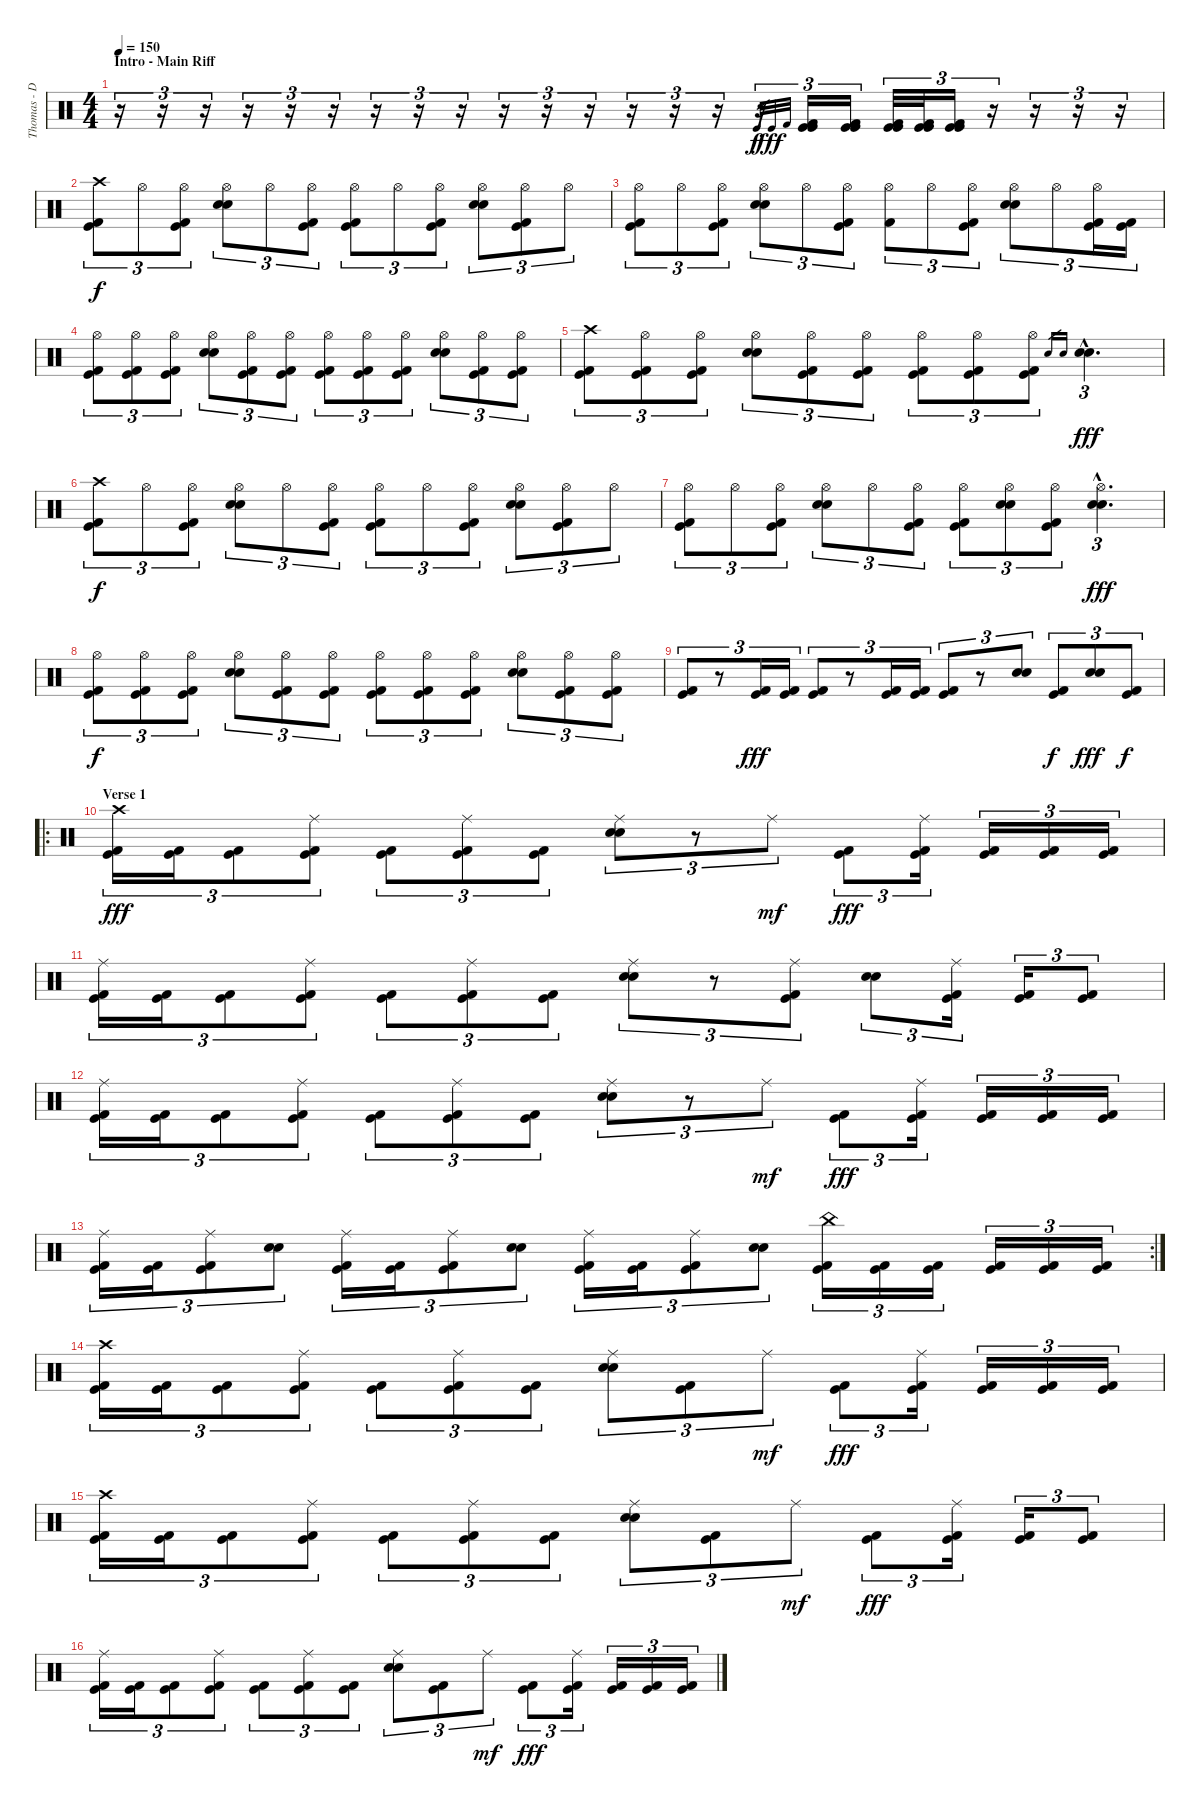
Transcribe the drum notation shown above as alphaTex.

\track ("Thomas - Drums" "Thomas - D") {instrument percussion}
\staff {score}
\articulation defaults
\ts (4 4)
\section ("" "Intro - Main Riff")
\tempo 150
\clef neutral
\ks c
r.16{tu (3 2) dy f} r.16{tu (3 2)} r.16{tu (3 2)} r.16{tu (3 2)} r.16{tu (3 2)} r.16{tu (3 2)} r.16{tu (3 2)} r.16{tu (3 2)} r.16{tu (3 2)} r.16{tu (3 2)} r.16{tu (3 2)} r.16{tu (3 2)} r.16{tu (3 2)} r.16{tu (3 2)} r.16{tu (3 2)} r.16{tu (3 2)} "Kick (hit)".32{gr} "Kick (hit)".32{gr dy fff} "Kick (hit) 2".32{gr} ("Kick (hit)" "Kick (hit)" "Kick (hit) 2").16{tu (3 2)} ("Kick (hit)" "Kick (hit)" "Kick (hit) 2").16{tu (3 2)} ("Kick (hit)" "Kick (hit)" "Kick (hit) 2").32{tu (3 2)} ("Kick (hit)" "Kick (hit)" "Kick (hit) 2").32{tu (3 2)} ("Kick (hit)" "Kick (hit)" "Kick (hit) 2").16{tu (3 2)} r.16{tu (3 2)} r.16{tu (3 2)} r.16{tu (3 2)} r.16{tu (3 2)} |
("Crash high (hit)" "Kick (hit)" "Kick (hit) 2").8{tu (3 2) dy f} "Hi-Hat (open)".8{tu (3 2)} ("Hi-Hat (open)" "Kick (hit)" "Kick (hit) 2").8{tu (3 2)} ("Hi-Hat (open)" "Electric Snare (hit)" "Electric Snare (hit)").8{tu (3 2)} "Hi-Hat (open)".8{tu (3 2)} ("Hi-Hat (open)" "Kick (hit)" "Kick (hit) 2").8{tu (3 2)} ("Hi-Hat (open)" "Kick (hit)" "Kick (hit) 2").8{tu (3 2)} "Hi-Hat (open)".8{tu (3 2)} ("Hi-Hat (open)" "Kick (hit)" "Kick (hit) 2").8{tu (3 2)} ("Hi-Hat (open)" "Electric Snare (hit)" "Electric Snare (hit)").8{tu (3 2)} ("Hi-Hat (open)" "Kick (hit)" "Kick (hit) 2").8{tu (3 2)} "Hi-Hat (open)".8{tu (3 2)} |
("Hi-Hat (open)" "Kick (hit)" "Kick (hit) 2").8{tu (3 2)} "Hi-Hat (open)".8{tu (3 2)} ("Hi-Hat (open)" "Kick (hit)" "Kick (hit) 2").8{tu (3 2)} ("Hi-Hat (open)" "Electric Snare (hit)" "Electric Snare (hit)").8{tu (3 2)} "Hi-Hat (open)".8{tu (3 2)} ("Hi-Hat (open)" "Kick (hit)" "Kick (hit) 2").8{tu (3 2)} ("Hi-Hat (open)" "Kick (hit) 2").8{tu (3 2)} "Hi-Hat (open)".8{tu (3 2)} ("Hi-Hat (open)" "Kick (hit)" "Kick (hit) 2").8{tu (3 2)} ("Hi-Hat (open)" "Electric Snare (hit)" "Electric Snare (hit)").8{tu (3 2)} "Hi-Hat (open)".8{tu (3 2)} ("Hi-Hat (open)" "Kick (hit)" "Kick (hit) 2").16{tu (3 2)} ("Kick (hit)" "Kick (hit) 2").16{tu (3 2)} |
("Hi-Hat (open)" "Kick (hit)" "Kick (hit) 2").8{tu (3 2)} ("Hi-Hat (open)" "Kick (hit)" "Kick (hit) 2").8{tu (3 2)} ("Hi-Hat (open)" "Kick (hit)" "Kick (hit) 2").8{tu (3 2)} ("Hi-Hat (open)" "Electric Snare (hit)" "Electric Snare (hit)").8{tu (3 2)} ("Hi-Hat (open)" "Kick (hit)" "Kick (hit) 2").8{tu (3 2)} ("Hi-Hat (open)" "Kick (hit)" "Kick (hit) 2").8{tu (3 2)} ("Hi-Hat (open)" "Kick (hit)" "Kick (hit) 2").8{tu (3 2)} ("Hi-Hat (open)" "Kick (hit)" "Kick (hit) 2").8{tu (3 2)} ("Hi-Hat (open)" "Kick (hit)" "Kick (hit) 2").8{tu (3 2)} ("Hi-Hat (open)" "Electric Snare (hit)" "Electric Snare (hit)").8{tu (3 2)} ("Hi-Hat (open)" "Kick (hit)" "Kick (hit) 2").8{tu (3 2)} ("Hi-Hat (open)" "Kick (hit)" "Kick (hit) 2").8{tu (3 2)} |
("Crash high (hit)" "Kick (hit)" "Kick (hit) 2").8{tu (3 2)} ("Hi-Hat (open)" "Kick (hit)" "Kick (hit) 2").8{tu (3 2)} ("Hi-Hat (open)" "Kick (hit)" "Kick (hit) 2").8{tu (3 2)} ("Hi-Hat (open)" "Electric Snare (hit)" "Electric Snare (hit)").8{tu (3 2)} ("Hi-Hat (open)" "Kick (hit)" "Kick (hit) 2").8{tu (3 2)} ("Hi-Hat (open)" "Kick (hit)" "Kick (hit) 2").8{tu (3 2)} ("Hi-Hat (open)" "Kick (hit)" "Kick (hit) 2").8{tu (3 2)} ("Hi-Hat (open)" "Kick (hit)" "Kick (hit) 2").8{tu (3 2)} ("Hi-Hat (open)" "Kick (hit)" "Kick (hit) 2").8{tu (3 2)} "Electric Snare (hit)".16{gr} "Electric Snare (hit)".16{gr} ("Electric Snare (hit)"{hac} "Electric Snare (hit)"{hac}).4{d tu (3 2) dy fff} |
("Crash high (hit)" "Kick (hit)" "Kick (hit) 2").8{tu (3 2) dy f} "Hi-Hat (open)".8{tu (3 2)} ("Hi-Hat (open)" "Kick (hit)" "Kick (hit) 2").8{tu (3 2)} ("Hi-Hat (open)" "Electric Snare (hit)" "Electric Snare (hit)").8{tu (3 2)} "Hi-Hat (open)".8{tu (3 2)} ("Hi-Hat (open)" "Kick (hit)" "Kick (hit) 2").8{tu (3 2)} ("Hi-Hat (open)" "Kick (hit)" "Kick (hit) 2").8{tu (3 2)} "Hi-Hat (open)".8{tu (3 2)} ("Hi-Hat (open)" "Kick (hit)" "Kick (hit) 2").8{tu (3 2)} ("Hi-Hat (open)" "Electric Snare (hit)" "Electric Snare (hit)").8{tu (3 2)} ("Hi-Hat (open)" "Kick (hit)" "Kick (hit) 2").8{tu (3 2)} "Hi-Hat (open)".8{tu (3 2)} |
("Hi-Hat (open)" "Kick (hit)" "Kick (hit) 2").8{tu (3 2)} "Hi-Hat (open)".8{tu (3 2)} ("Hi-Hat (open)" "Kick (hit)" "Kick (hit) 2").8{tu (3 2)} ("Hi-Hat (open)" "Electric Snare (hit)" "Electric Snare (hit)").8{tu (3 2)} "Hi-Hat (open)".8{tu (3 2)} ("Hi-Hat (open)" "Kick (hit)" "Kick (hit) 2").8{tu (3 2)} ("Hi-Hat (open)" "Kick (hit)" "Kick (hit) 2").8{tu (3 2)} ("Hi-Hat (open)" "Electric Snare (hit)" "Electric Snare (hit)").8{tu (3 2)} ("Hi-Hat (open)" "Kick (hit)" "Kick (hit) 2").8{tu (3 2)} ("Hi-Hat (open)"{hac} "Electric Snare (hit)"{hac} "Electric Snare (hit)"{hac}).4{d tu (3 2) dy fff} |
("Hi-Hat (open)" "Kick (hit)" "Kick (hit) 2").8{tu (3 2) dy f} ("Hi-Hat (open)" "Kick (hit)" "Kick (hit) 2").8{tu (3 2)} ("Hi-Hat (open)" "Kick (hit)" "Kick (hit) 2").8{tu (3 2)} ("Hi-Hat (open)" "Electric Snare (hit)" "Electric Snare (hit)").8{tu (3 2)} ("Hi-Hat (open)" "Kick (hit)" "Kick (hit) 2").8{tu (3 2)} ("Hi-Hat (open)" "Kick (hit)" "Kick (hit) 2").8{tu (3 2)} ("Hi-Hat (open)" "Kick (hit)" "Kick (hit) 2").8{tu (3 2)} ("Hi-Hat (open)" "Kick (hit)" "Kick (hit) 2").8{tu (3 2)} ("Hi-Hat (open)" "Kick (hit)" "Kick (hit) 2").8{tu (3 2)} ("Hi-Hat (open)" "Electric Snare (hit)" "Electric Snare (hit)").8{tu (3 2)} ("Hi-Hat (open)" "Kick (hit)" "Kick (hit) 2").8{tu (3 2)} ("Hi-Hat (open)" "Kick (hit)" "Kick (hit) 2").8{tu (3 2)} |
("Kick (hit) 2" "Kick (hit)").8{tu (3 2)} r.8{tu (3 2)} ("Kick (hit) 2" "Kick (hit)").16{tu (3 2) dy fff} ("Kick (hit) 2" "Kick (hit)").16{tu (3 2)} ("Kick (hit) 2" "Kick (hit)").8{tu (3 2)} r.8{tu (3 2)} ("Kick (hit)" "Kick (hit) 2").16{tu (3 2)} ("Kick (hit)" "Kick (hit) 2").16{tu (3 2)} ("Kick (hit) 2" "Kick (hit)").8{tu (3 2)} r.8{tu (3 2)} ("Electric Snare (hit)" "Electric Snare (hit)").8{tu (3 2)} ("Kick (hit) 2" "Kick (hit)").8{tu (3 2) dy f} ("Electric Snare (hit)" "Electric Snare (hit)").8{tu (3 2) dy fff} ("Kick (hit) 2" "Kick (hit)").8{tu (3 2) dy f} |
\ro
\section ("" "Verse 1")
("Crash high (hit)" "Kick (hit)" "Kick (hit) 2").16{tu (3 2) dy fff} ("Kick (hit)" "Kick (hit) 2").16{tu (3 2)} ("Kick (hit)" "Kick (hit) 2").8{tu (3 2)} ("Ride (middle)" "Kick (hit)" "Kick (hit) 2").8{tu (3 2)} ("Kick (hit)" "Kick (hit) 2").8{tu (3 2)} ("Ride (middle)" "Kick (hit)" "Kick (hit) 2").8{tu (3 2)} ("Kick (hit)" "Kick (hit) 2").8{tu (3 2)} ("Ride (middle)" "Electric Snare (hit)" "Electric Snare (hit)").8{tu (3 2)} r.8{tu (3 2)} "Ride (middle)".8{tu (3 2) dy mf} ("Kick (hit)" "Kick (hit) 2").8{tu (3 2) dy fff} ("Ride (middle)" "Kick (hit)" "Kick (hit) 2").16{tu (3 2)} ("Kick (hit)" "Kick (hit) 2").16{tu (3 2)} ("Kick (hit)" "Kick (hit) 2").16{tu (3 2)} ("Kick (hit)" "Kick (hit) 2").16{tu (3 2)} |
("Ride (middle)" "Kick (hit)" "Kick (hit) 2").16{tu (3 2)} ("Kick (hit)" "Kick (hit) 2").16{tu (3 2)} ("Kick (hit)" "Kick (hit) 2").8{tu (3 2)} ("Ride (middle)" "Kick (hit)" "Kick (hit) 2").8{tu (3 2)} ("Kick (hit)" "Kick (hit) 2").8{tu (3 2)} ("Ride (middle)" "Kick (hit)" "Kick (hit) 2").8{tu (3 2)} ("Kick (hit)" "Kick (hit) 2").8{tu (3 2)} ("Ride (middle)" "Electric Snare (hit)" "Electric Snare (hit)").8{tu (3 2)} r.8{tu (3 2)} ("Ride (middle)" "Kick (hit)" "Kick (hit) 2").8{tu (3 2)} ("Electric Snare (hit)" "Electric Snare (hit)").8{tu (3 2)} ("Ride (middle)" "Kick (hit)" "Kick (hit) 2").16{tu (3 2)} ("Kick (hit)" "Kick (hit) 2").16{tu (3 2)} ("Kick (hit)" "Kick (hit) 2").8{tu (3 2)} |
("Ride (middle)" "Kick (hit)" "Kick (hit) 2").16{tu (3 2)} ("Kick (hit)" "Kick (hit) 2").16{tu (3 2)} ("Kick (hit)" "Kick (hit) 2").8{tu (3 2)} ("Ride (middle)" "Kick (hit)" "Kick (hit) 2").8{tu (3 2)} ("Kick (hit)" "Kick (hit) 2").8{tu (3 2)} ("Ride (middle)" "Kick (hit)" "Kick (hit) 2").8{tu (3 2)} ("Kick (hit)" "Kick (hit) 2").8{tu (3 2)} ("Ride (middle)" "Electric Snare (hit)" "Electric Snare (hit)").8{tu (3 2)} r.8{tu (3 2)} "Ride (middle)".8{tu (3 2) dy mf} ("Kick (hit)" "Kick (hit) 2").8{tu (3 2) dy fff} ("Ride (middle)" "Kick (hit)" "Kick (hit) 2").16{tu (3 2)} ("Kick (hit)" "Kick (hit) 2").16{tu (3 2)} ("Kick (hit)" "Kick (hit) 2").16{tu (3 2)} ("Kick (hit)" "Kick (hit) 2").16{tu (3 2)} |
\rc 2
("Ride (middle)" "Kick (hit)" "Kick (hit) 2").16{tu (3 2)} ("Kick (hit)" "Kick (hit) 2").16{tu (3 2)} ("Ride (middle)" "Kick (hit)" "Kick (hit) 2").8{tu (3 2)} ("Electric Snare (hit)" "Electric Snare (hit)").8{tu (3 2)} ("Ride (middle)" "Kick (hit)" "Kick (hit) 2").16{tu (3 2)} ("Kick (hit)" "Kick (hit) 2").16{tu (3 2)} ("Ride (middle)" "Kick (hit)" "Kick (hit) 2").8{tu (3 2)} ("Electric Snare (hit)" "Electric Snare (hit)").8{tu (3 2)} ("Ride (middle)" "Kick (hit)" "Kick (hit) 2").16{tu (3 2)} ("Kick (hit)" "Kick (hit) 2").16{tu (3 2)} ("Ride (middle)" "Kick (hit)" "Kick (hit) 2").8{tu (3 2)} ("Electric Snare (hit)" "Electric Snare (hit)").8{tu (3 2)} ("China (hit)" "Kick (hit)" "Kick (hit) 2").16{tu (3 2)} ("Kick (hit)" "Kick (hit) 2").16{tu (3 2)} ("Kick (hit)" "Kick (hit) 2").16{tu (3 2)} ("Kick (hit)" "Kick (hit) 2").16{tu (3 2)} ("Kick (hit)" "Kick (hit) 2").16{tu (3 2)} ("Kick (hit)" "Kick (hit) 2").16{tu (3 2)} |
("Crash high (hit)" "Kick (hit)" "Kick (hit) 2").16{tu (3 2)} ("Kick (hit)" "Kick (hit) 2").16{tu (3 2)} ("Kick (hit)" "Kick (hit) 2").8{tu (3 2)} ("Ride (middle)" "Kick (hit)" "Kick (hit) 2").8{tu (3 2)} ("Kick (hit)" "Kick (hit) 2").8{tu (3 2)} ("Ride (middle)" "Kick (hit)" "Kick (hit) 2").8{tu (3 2)} ("Kick (hit)" "Kick (hit) 2").8{tu (3 2)} ("Ride (middle)" "Electric Snare (hit)" "Electric Snare (hit)").8{tu (3 2)} ("Kick (hit)" "Kick (hit) 2").8{tu (3 2)} "Ride (middle)".8{tu (3 2) dy mf} ("Kick (hit)" "Kick (hit) 2").8{tu (3 2) dy fff} ("Ride (middle)" "Kick (hit)" "Kick (hit) 2").16{tu (3 2)} ("Kick (hit)" "Kick (hit) 2").16{tu (3 2)} ("Kick (hit)" "Kick (hit) 2").16{tu (3 2)} ("Kick (hit)" "Kick (hit) 2").16{tu (3 2)} |
("Crash high (hit)" "Kick (hit)" "Kick (hit) 2").16{tu (3 2)} ("Kick (hit)" "Kick (hit) 2").16{tu (3 2)} ("Kick (hit)" "Kick (hit) 2").8{tu (3 2)} ("Ride (middle)" "Kick (hit)" "Kick (hit) 2").8{tu (3 2)} ("Kick (hit)" "Kick (hit) 2").8{tu (3 2)} ("Ride (middle)" "Kick (hit)" "Kick (hit) 2").8{tu (3 2)} ("Kick (hit)" "Kick (hit) 2").8{tu (3 2)} ("Ride (middle)" "Electric Snare (hit)" "Electric Snare (hit)").8{tu (3 2)} ("Kick (hit)" "Kick (hit) 2").8{tu (3 2)} "Ride (middle)".8{tu (3 2) dy mf} ("Kick (hit)" "Kick (hit) 2").8{tu (3 2) dy fff} ("Ride (middle)" "Kick (hit)" "Kick (hit) 2").16{tu (3 2)} ("Kick (hit)" "Kick (hit) 2").16{tu (3 2)} ("Kick (hit)" "Kick (hit) 2").8{tu (3 2)} |
("Ride (middle)" "Kick (hit)" "Kick (hit) 2").16{tu (3 2)} ("Kick (hit)" "Kick (hit) 2").16{tu (3 2)} ("Kick (hit)" "Kick (hit) 2").8{tu (3 2)} ("Ride (middle)" "Kick (hit)" "Kick (hit) 2").8{tu (3 2)} ("Kick (hit)" "Kick (hit) 2").8{tu (3 2)} ("Ride (middle)" "Kick (hit)" "Kick (hit) 2").8{tu (3 2)} ("Kick (hit)" "Kick (hit) 2").8{tu (3 2)} ("Ride (middle)" "Electric Snare (hit)" "Electric Snare (hit)").8{tu (3 2)} ("Kick (hit)" "Kick (hit) 2").8{tu (3 2)} "Ride (middle)".8{tu (3 2) dy mf} ("Kick (hit)" "Kick (hit) 2").8{tu (3 2) dy fff} ("Ride (middle)" "Kick (hit)" "Kick (hit) 2").16{tu (3 2)} ("Kick (hit)" "Kick (hit) 2").16{tu (3 2)} ("Kick (hit)" "Kick (hit) 2").16{tu (3 2)} ("Kick (hit)" "Kick (hit) 2").16{tu (3 2)}
